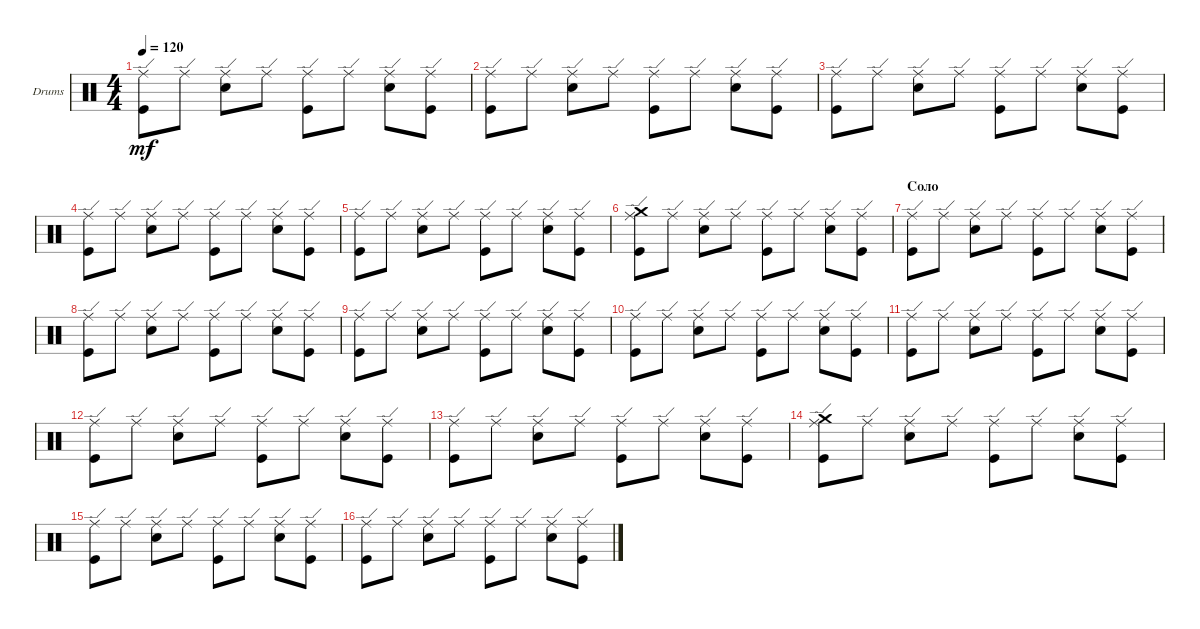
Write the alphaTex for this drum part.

\defaultSystemsLayout 4
\bracketExtendMode groupsimilarinstruments
\firstSystemTrackNameOrientation horizontal
\otherSystemsTrackNameOrientation horizontal
\track ("Drumkit" "Drums") {instrument percussion}
\staff {score}
\articulation defaults
\ts (4 4)
\tempo 120
\clef neutral
\ks c
("Kick (hit)" "Ride (edge)").8{dy mf} "Ride (edge)".8 ("Snare (hit) 2" "Ride (edge)").8 "Ride (edge)".8 ("Ride (edge)" "Kick (hit)").8 "Ride (edge)".8 ("Snare (hit) 2" "Ride (edge)").8 ("Ride (edge)" "Kick (hit)").8 |
("Kick (hit)" "Ride (edge)").8 "Ride (edge)".8 ("Snare (hit) 2" "Ride (edge)").8 "Ride (edge)".8 ("Ride (edge)" "Kick (hit)").8 "Ride (edge)".8 ("Snare (hit) 2" "Ride (edge)").8 ("Ride (edge)" "Kick (hit)").8 |
("Kick (hit)" "Ride (edge)").8 "Ride (edge)".8 ("Snare (hit) 2" "Ride (edge)").8 "Ride (edge)".8 ("Ride (edge)" "Kick (hit)").8 "Ride (edge)".8 ("Snare (hit) 2" "Ride (edge)").8 ("Ride (edge)" "Kick (hit)").8 |
("Kick (hit)" "Ride (edge)").8 "Ride (edge)".8 ("Snare (hit) 2" "Ride (edge)").8 "Ride (edge)".8 ("Ride (edge)" "Kick (hit)").8 "Ride (edge)".8 ("Snare (hit) 2" "Ride (edge)").8 ("Ride (edge)" "Kick (hit)").8 |
("Kick (hit)" "Ride (edge)").8 "Ride (edge)".8 ("Snare (hit) 2" "Ride (edge)").8 "Ride (edge)".8 ("Ride (edge)" "Kick (hit)").8 "Ride (edge)".8 ("Snare (hit) 2" "Ride (edge)").8 ("Ride (edge)" "Kick (hit)").8 |
("Kick (hit)" "Ride (edge)" "Crash medium (hit)").8 "Ride (edge)".8 ("Snare (hit) 2" "Ride (edge)").8 "Ride (edge)".8 ("Ride (edge)" "Kick (hit)").8 "Ride (edge)".8 ("Snare (hit) 2" "Ride (edge)").8 ("Ride (edge)" "Kick (hit)").8 |
\section ("" "Соло")
("Kick (hit)" "Ride (edge)").8 "Ride (edge)".8 ("Snare (hit) 2" "Ride (edge)").8 "Ride (edge)".8 ("Ride (edge)" "Kick (hit)").8 "Ride (edge)".8 ("Snare (hit) 2" "Ride (edge)").8 ("Ride (edge)" "Kick (hit)").8 |
("Kick (hit)" "Ride (edge)").8 "Ride (edge)".8 ("Snare (hit) 2" "Ride (edge)").8 "Ride (edge)".8 ("Ride (edge)" "Kick (hit)").8 "Ride (edge)".8 ("Snare (hit) 2" "Ride (edge)").8 ("Ride (edge)" "Kick (hit)").8 |
("Kick (hit)" "Ride (edge)").8 "Ride (edge)".8 ("Snare (hit) 2" "Ride (edge)").8 "Ride (edge)".8 ("Ride (edge)" "Kick (hit)").8 "Ride (edge)".8 ("Snare (hit) 2" "Ride (edge)").8 ("Ride (edge)" "Kick (hit)").8 |
("Kick (hit)" "Ride (edge)").8 "Ride (edge)".8 ("Snare (hit) 2" "Ride (edge)").8 "Ride (edge)".8 ("Ride (edge)" "Kick (hit)").8 "Ride (edge)".8 ("Snare (hit) 2" "Ride (edge)").8 ("Ride (edge)" "Kick (hit)").8 |
("Kick (hit)" "Ride (edge)").8 "Ride (edge)".8 ("Snare (hit) 2" "Ride (edge)").8 "Ride (edge)".8 ("Ride (edge)" "Kick (hit)").8 "Ride (edge)".8 ("Snare (hit) 2" "Ride (edge)").8 ("Ride (edge)" "Kick (hit)").8 |
("Kick (hit)" "Ride (edge)").8 "Ride (edge)".8 ("Snare (hit) 2" "Ride (edge)").8 "Ride (edge)".8 ("Ride (edge)" "Kick (hit)").8 "Ride (edge)".8 ("Snare (hit) 2" "Ride (edge)").8 ("Ride (edge)" "Kick (hit)").8 |
("Kick (hit)" "Ride (edge)").8 "Ride (edge)".8 ("Snare (hit) 2" "Ride (edge)").8 "Ride (edge)".8 ("Ride (edge)" "Kick (hit)").8 "Ride (edge)".8 ("Snare (hit) 2" "Ride (edge)").8 ("Ride (edge)" "Kick (hit)").8 |
("Kick (hit)" "Ride (edge)" "Crash medium (hit)").8 "Ride (edge)".8 ("Snare (hit) 2" "Ride (edge)").8 "Ride (edge)".8 ("Ride (edge)" "Kick (hit)").8 "Ride (edge)".8 ("Snare (hit) 2" "Ride (edge)").8 ("Ride (edge)" "Kick (hit)").8 |
("Kick (hit)" "Ride (edge)").8 "Ride (edge)".8 ("Snare (hit) 2" "Ride (edge)").8 "Ride (edge)".8 ("Ride (edge)" "Kick (hit)").8 "Ride (edge)".8 ("Snare (hit) 2" "Ride (edge)").8 ("Ride (edge)" "Kick (hit)").8 |
("Kick (hit)" "Ride (edge)").8 "Ride (edge)".8 ("Snare (hit) 2" "Ride (edge)").8 "Ride (edge)".8 ("Ride (edge)" "Kick (hit)").8 "Ride (edge)".8 ("Snare (hit) 2" "Ride (edge)").8 ("Ride (edge)" "Kick (hit)").8
